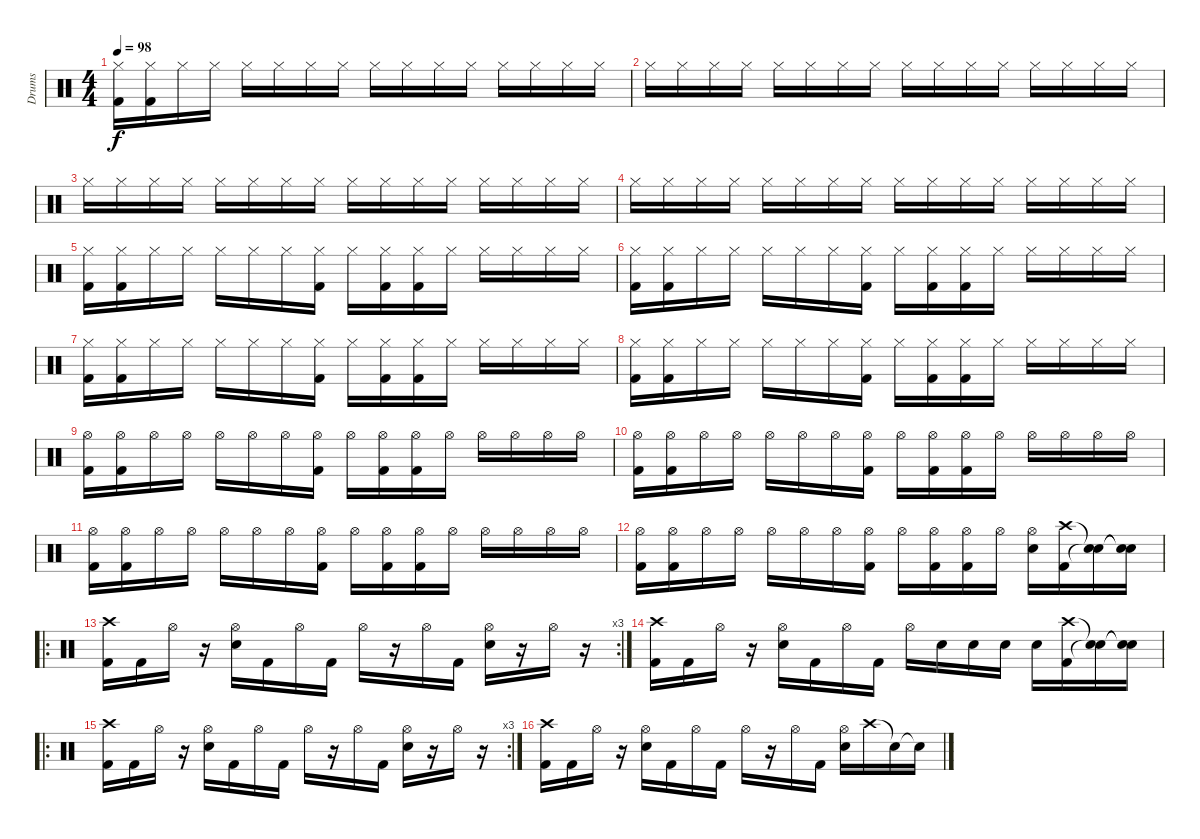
\track ("Drums" "Drums") {instrument percussion}
\staff {score}
\articulation defaults
\ts (4 4)
\tempo 98
\clef neutral
\ks c
("Hi-Hat (closed)" "Kick (hit) 2").16{dy f} ("Hi-Hat (closed)" "Kick (hit) 2").16 "Hi-Hat (closed)".16 "Hi-Hat (closed)".16 "Hi-Hat (closed)".16 "Hi-Hat (closed)".16 "Hi-Hat (closed)".16 "Hi-Hat (closed)".16 "Hi-Hat (closed)".16 "Hi-Hat (closed)".16 "Hi-Hat (closed)".16 "Hi-Hat (closed)".16 "Hi-Hat (closed)".16 "Hi-Hat (closed)".16 "Hi-Hat (closed)".16 "Hi-Hat (closed)".16 |
"Hi-Hat (closed)".16 "Hi-Hat (closed)".16 "Hi-Hat (closed)".16 "Hi-Hat (closed)".16 "Hi-Hat (closed)".16 "Hi-Hat (closed)".16 "Hi-Hat (closed)".16 "Hi-Hat (closed)".16 "Hi-Hat (closed)".16 "Hi-Hat (closed)".16 "Hi-Hat (closed)".16 "Hi-Hat (closed)".16 "Hi-Hat (closed)".16 "Hi-Hat (closed)".16 "Hi-Hat (closed)".16 "Hi-Hat (closed)".16 |
"Hi-Hat (closed)".16 "Hi-Hat (closed)".16 "Hi-Hat (closed)".16 "Hi-Hat (closed)".16 "Hi-Hat (closed)".16 "Hi-Hat (closed)".16 "Hi-Hat (closed)".16 "Hi-Hat (closed)".16 "Hi-Hat (closed)".16 "Hi-Hat (closed)".16 "Hi-Hat (closed)".16 "Hi-Hat (closed)".16 "Hi-Hat (closed)".16 "Hi-Hat (closed)".16 "Hi-Hat (closed)".16 "Hi-Hat (closed)".16 |
"Hi-Hat (closed)".16 "Hi-Hat (closed)".16 "Hi-Hat (closed)".16 "Hi-Hat (closed)".16 "Hi-Hat (closed)".16 "Hi-Hat (closed)".16 "Hi-Hat (closed)".16 "Hi-Hat (closed)".16 "Hi-Hat (closed)".16 "Hi-Hat (closed)".16 "Hi-Hat (closed)".16 "Hi-Hat (closed)".16 "Hi-Hat (closed)".16 "Hi-Hat (closed)".16 "Hi-Hat (closed)".16 "Hi-Hat (closed)".16 |
("Hi-Hat (closed)" "Kick (hit) 2").16 ("Hi-Hat (closed)" "Kick (hit) 2").16 "Hi-Hat (closed)".16 "Hi-Hat (closed)".16 "Hi-Hat (closed)".16 "Hi-Hat (closed)".16 "Hi-Hat (closed)".16 ("Hi-Hat (closed)" "Kick (hit) 2").16 "Hi-Hat (closed)".16 ("Hi-Hat (closed)" "Kick (hit) 2").16 ("Hi-Hat (closed)" "Kick (hit) 2").16 "Hi-Hat (closed)".16 "Hi-Hat (closed)".16 "Hi-Hat (closed)".16 "Hi-Hat (closed)".16 "Hi-Hat (closed)".16 |
("Hi-Hat (closed)" "Kick (hit) 2").16 ("Hi-Hat (closed)" "Kick (hit) 2").16 "Hi-Hat (closed)".16 "Hi-Hat (closed)".16 "Hi-Hat (closed)".16 "Hi-Hat (closed)".16 "Hi-Hat (closed)".16 ("Hi-Hat (closed)" "Kick (hit) 2").16 "Hi-Hat (closed)".16 ("Hi-Hat (closed)" "Kick (hit) 2").16 ("Hi-Hat (closed)" "Kick (hit) 2").16 "Hi-Hat (closed)".16 "Hi-Hat (closed)".16 "Hi-Hat (closed)".16 "Hi-Hat (closed)".16 "Hi-Hat (closed)".16 |
("Hi-Hat (closed)" "Kick (hit) 2").16 ("Hi-Hat (closed)" "Kick (hit) 2").16 "Hi-Hat (closed)".16 "Hi-Hat (closed)".16 "Hi-Hat (closed)".16 "Hi-Hat (closed)".16 "Hi-Hat (closed)".16 ("Hi-Hat (closed)" "Kick (hit) 2").16 "Hi-Hat (closed)".16 ("Hi-Hat (closed)" "Kick (hit) 2").16 ("Hi-Hat (closed)" "Kick (hit) 2").16 "Hi-Hat (closed)".16 "Hi-Hat (closed)".16 "Hi-Hat (closed)".16 "Hi-Hat (closed)".16 "Hi-Hat (closed)".16 |
("Hi-Hat (closed)" "Kick (hit) 2").16 ("Hi-Hat (closed)" "Kick (hit) 2").16 "Hi-Hat (closed)".16 "Hi-Hat (closed)".16 "Hi-Hat (closed)".16 "Hi-Hat (closed)".16 "Hi-Hat (closed)".16 ("Hi-Hat (closed)" "Kick (hit) 2").16 "Hi-Hat (closed)".16 ("Hi-Hat (closed)" "Kick (hit) 2").16 ("Hi-Hat (closed)" "Kick (hit) 2").16 "Hi-Hat (closed)".16 "Hi-Hat (closed)".16 "Hi-Hat (closed)".16 "Hi-Hat (closed)".16 "Hi-Hat (closed)".16 |
("Hi-Hat (open)" "Kick (hit) 2").16 ("Hi-Hat (open)" "Kick (hit) 2").16 "Hi-Hat (open)".16 "Hi-Hat (open)".16 "Hi-Hat (open)".16 "Hi-Hat (open)".16 "Hi-Hat (open)".16 ("Hi-Hat (open)" "Kick (hit) 2").16 "Hi-Hat (open)".16 ("Hi-Hat (open)" "Kick (hit) 2").16 ("Hi-Hat (open)" "Kick (hit) 2").16 "Hi-Hat (open)".16 "Hi-Hat (open)".16 "Hi-Hat (open)".16 "Hi-Hat (open)".16 "Hi-Hat (open)".16 |
("Hi-Hat (open)" "Kick (hit) 2").16 ("Hi-Hat (open)" "Kick (hit) 2").16 "Hi-Hat (open)".16 "Hi-Hat (open)".16 "Hi-Hat (open)".16 "Hi-Hat (open)".16 "Hi-Hat (open)".16 ("Hi-Hat (open)" "Kick (hit) 2").16 "Hi-Hat (open)".16 ("Hi-Hat (open)" "Kick (hit) 2").16 ("Hi-Hat (open)" "Kick (hit) 2").16 "Hi-Hat (open)".16 "Hi-Hat (open)".16 "Hi-Hat (open)".16 "Hi-Hat (open)".16 "Hi-Hat (open)".16 |
("Hi-Hat (open)" "Kick (hit) 2").16 ("Hi-Hat (open)" "Kick (hit) 2").16 "Hi-Hat (open)".16 "Hi-Hat (open)".16 "Hi-Hat (open)".16 "Hi-Hat (open)".16 "Hi-Hat (open)".16 ("Hi-Hat (open)" "Kick (hit) 2").16 "Hi-Hat (open)".16 ("Hi-Hat (open)" "Kick (hit) 2").16 ("Hi-Hat (open)" "Kick (hit) 2").16 "Hi-Hat (open)".16 "Hi-Hat (open)".16 "Hi-Hat (open)".16 "Hi-Hat (open)".16 "Hi-Hat (open)".16 |
("Hi-Hat (open)" "Kick (hit) 2").16 ("Hi-Hat (open)" "Kick (hit) 2").16 "Hi-Hat (open)".16 "Hi-Hat (open)".16 "Hi-Hat (open)".16 "Hi-Hat (open)".16 "Hi-Hat (open)".16 ("Hi-Hat (open)" "Kick (hit) 2").16 "Hi-Hat (open)".16 ("Hi-Hat (open)" "Kick (hit) 2").16 ("Hi-Hat (open)" "Kick (hit) 2").16 "Hi-Hat (open)".16 ("Hi-Hat (open)" "Snare (hit) 2").16 ("Crash high (hit)" "Kick (hit) 2").16 ("Snare (hit)"{t} "Snare (hit)"{t}).16 ("Snare (hit)"{t} "Snare (hit)"{t}).16 |
\ro
\rc 3
("Crash high (hit)" "Kick (hit) 2").16 "Kick (hit) 2".16 "Hi-Hat (open)".16 r.16 ("Hi-Hat (open)" "Snare (hit) 2").16 "Kick (hit) 2".16 "Hi-Hat (open)".16 "Kick (hit) 2".16 "Hi-Hat (open)".16 r.16 "Hi-Hat (open)".16 "Kick (hit) 2".16 ("Hi-Hat (open)" "Snare (hit) 2").16 r.16 "Hi-Hat (open)".16 r.16 |
("Crash high (hit)" "Kick (hit) 2").16 "Kick (hit) 2".16 "Hi-Hat (open)".16 r.16 ("Hi-Hat (open)" "Snare (hit) 2").16 "Kick (hit) 2".16 "Hi-Hat (open)".16 "Kick (hit) 2".16 "Hi-Hat (open)".16 "Snare (hit) 2".16 "Snare (hit) 2".16 "Snare (hit) 2".16 "Snare (hit) 2".16 ("Crash high (hit)" "Kick (hit) 2").16 ("Snare (hit)"{t} "Snare (hit)"{t}).16 ("Snare (hit)"{t} "Snare (hit)"{t}).16 |
\ro
\rc 3
("Crash high (hit)" "Kick (hit) 2").16 "Kick (hit) 2".16 "Hi-Hat (open)".16 r.16 ("Hi-Hat (open)" "Snare (hit) 2").16 "Kick (hit) 2".16 "Hi-Hat (open)".16 "Kick (hit) 2".16 "Hi-Hat (open)".16 r.16 "Hi-Hat (open)".16 "Kick (hit) 2".16 ("Hi-Hat (open)" "Snare (hit) 2").16 r.16 "Hi-Hat (open)".16 r.16 |
("Crash high (hit)" "Kick (hit) 2").16 "Kick (hit) 2".16 "Hi-Hat (open)".16 r.16 ("Hi-Hat (open)" "Snare (hit) 2").16 "Kick (hit) 2".16 "Hi-Hat (open)".16 "Kick (hit) 2".16 "Hi-Hat (open)".16 r.16 "Hi-Hat (open)".16 "Kick (hit) 2".16 ("Hi-Hat (open)" "Snare (hit) 2").16 "Crash high (hit)".16 "Snare (hit)"{t}.16 "Snare (hit)"{t}.16
